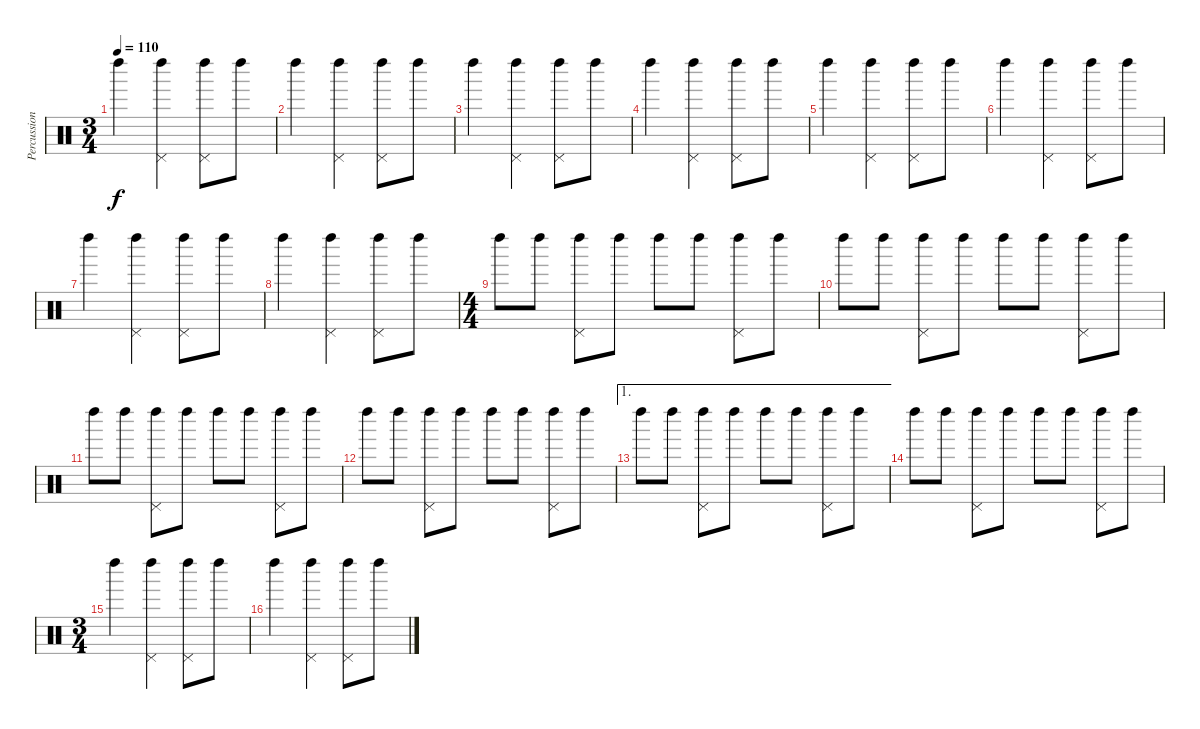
\track ("Percussions" "Percussion") {instrument percussion}
\staff {score}
\articulation defaults
\ts (3 4)
\tempo 110
\clef neutral
\ks c "Left Maraca (hit)".4{dy f}
("Left Maraca (hit)" "Pedal Hi-Hat (hit)").4 ("Left Maraca (hit)" "Pedal Hi-Hat (hit)").8 "Left Maraca (hit)".8 |
"Left Maraca (hit)".4 ("Left Maraca (hit)" "Pedal Hi-Hat (hit)").4 ("Left Maraca (hit)" "Pedal Hi-Hat (hit)").8 "Left Maraca (hit)".8 |
"Left Maraca (hit)".4 ("Left Maraca (hit)" "Pedal Hi-Hat (hit)").4 ("Left Maraca (hit)" "Pedal Hi-Hat (hit)").8 "Left Maraca (hit)".8 |
"Left Maraca (hit)".4 ("Left Maraca (hit)" "Pedal Hi-Hat (hit)").4 ("Left Maraca (hit)" "Pedal Hi-Hat (hit)").8 "Left Maraca (hit)".8 |
"Left Maraca (hit)".4 ("Left Maraca (hit)" "Pedal Hi-Hat (hit)").4 ("Left Maraca (hit)" "Pedal Hi-Hat (hit)").8 "Left Maraca (hit)".8 |
"Left Maraca (hit)".4 ("Left Maraca (hit)" "Pedal Hi-Hat (hit)").4 ("Left Maraca (hit)" "Pedal Hi-Hat (hit)").8 "Left Maraca (hit)".8 |
"Left Maraca (hit)".4 ("Left Maraca (hit)" "Pedal Hi-Hat (hit)").4 ("Left Maraca (hit)" "Pedal Hi-Hat (hit)").8 "Left Maraca (hit)".8 |
"Left Maraca (hit)".4 ("Left Maraca (hit)" "Pedal Hi-Hat (hit)").4 ("Left Maraca (hit)" "Pedal Hi-Hat (hit)").8 "Left Maraca (hit)".8 |
\ts (4 4)
"Left Maraca (hit)".8 "Left Maraca (hit)".8 ("Left Maraca (hit)" "Pedal Hi-Hat (hit)").8 "Left Maraca (hit)".8 "Left Maraca (hit)".8 "Left Maraca (hit)".8 ("Left Maraca (hit)" "Pedal Hi-Hat (hit)").8 "Left Maraca (hit)".8 |
"Left Maraca (hit)".8 "Left Maraca (hit)".8 ("Left Maraca (hit)" "Pedal Hi-Hat (hit)").8 "Left Maraca (hit)".8 "Left Maraca (hit)".8 "Left Maraca (hit)".8 ("Left Maraca (hit)" "Pedal Hi-Hat (hit)").8 "Left Maraca (hit)".8 |
"Left Maraca (hit)".8 "Left Maraca (hit)".8 ("Left Maraca (hit)" "Pedal Hi-Hat (hit)").8 "Left Maraca (hit)".8 "Left Maraca (hit)".8 "Left Maraca (hit)".8 ("Left Maraca (hit)" "Pedal Hi-Hat (hit)").8 "Left Maraca (hit)".8 |
"Left Maraca (hit)".8 "Left Maraca (hit)".8 ("Left Maraca (hit)" "Pedal Hi-Hat (hit)").8 "Left Maraca (hit)".8 "Left Maraca (hit)".8 "Left Maraca (hit)".8 ("Left Maraca (hit)" "Pedal Hi-Hat (hit)").8 "Left Maraca (hit)".8 |
\ae 1 "Left Maraca (hit)".8 "Left Maraca (hit)".8
("Left Maraca (hit)" "Pedal Hi-Hat (hit)").8 "Left Maraca (hit)".8 "Left Maraca (hit)".8 "Left Maraca (hit)".8 ("Left Maraca (hit)" "Pedal Hi-Hat (hit)").8 "Left Maraca (hit)".8 |
"Left Maraca (hit)".8 "Left Maraca (hit)".8 ("Left Maraca (hit)" "Pedal Hi-Hat (hit)").8 "Left Maraca (hit)".8 "Left Maraca (hit)".8 "Left Maraca (hit)".8 ("Left Maraca (hit)" "Pedal Hi-Hat (hit)").8 "Left Maraca (hit)".8 |
\ts (3 4)
"Left Maraca (hit)".4 ("Left Maraca (hit)" "Pedal Hi-Hat (hit)").4 ("Left Maraca (hit)" "Pedal Hi-Hat (hit)").8 "Left Maraca (hit)".8 |
"Left Maraca (hit)".4 ("Left Maraca (hit)" "Pedal Hi-Hat (hit)").4 ("Left Maraca (hit)" "Pedal Hi-Hat (hit)").8 "Left Maraca (hit)".8
